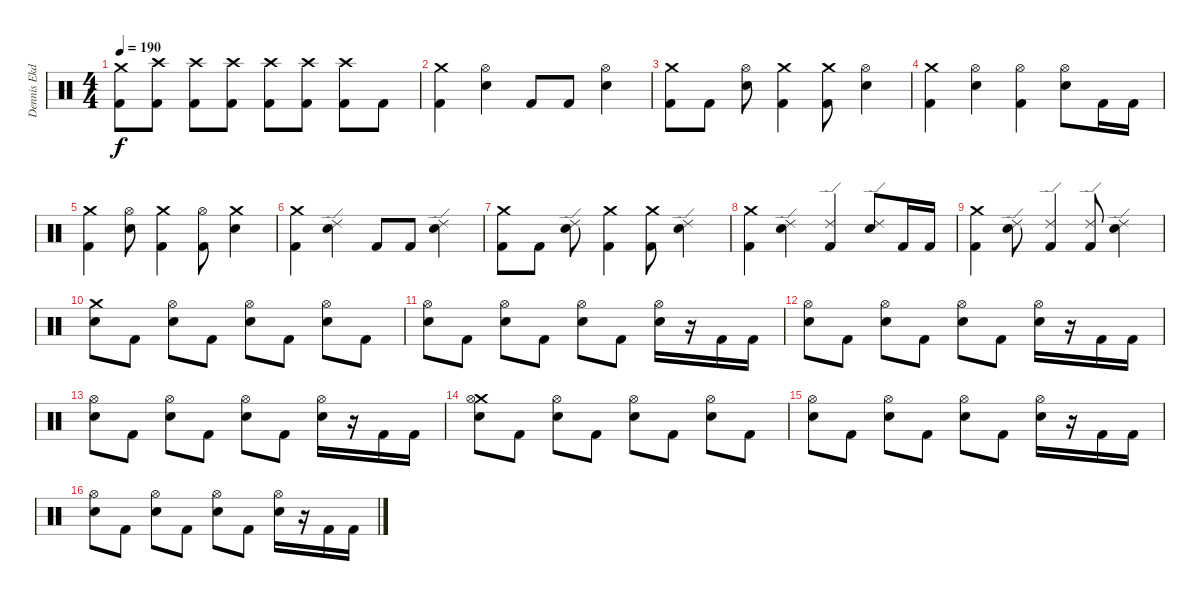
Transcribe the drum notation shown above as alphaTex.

\track ("Dennis Ekdahl" "Dennis Ekd") {instrument percussion}
\staff {score}
\articulation defaults
\ts (4 4)
\tempo 190
\clef neutral
\ks c
("Crash medium (hit)" "Kick (hit) 2").8{dy f} ("Crash high (hit)" "Kick (hit) 2").8 ("Crash high (hit)" "Kick (hit) 2").8 ("Crash high (hit)" "Kick (hit) 2").8 ("Crash high (hit)" "Kick (hit) 2").8 ("Crash high (hit)" "Kick (hit) 2").8 ("Crash high (hit)" "Kick (hit) 2").8 "Kick (hit) 2".8 |
("Crash medium (hit)" "Kick (hit) 2").4 ("Hi-Hat (open)" "Snare (hit) 2").4 "Kick (hit) 2".8 "Kick (hit) 2".8 ("Hi-Hat (open)" "Snare (hit) 2").4 |
("Crash medium (hit)" "Kick (hit) 2").8 "Kick (hit) 2".8 ("Hi-Hat (open)" "Snare (hit) 2").8 ("Crash medium (hit)" "Kick (hit) 2").4 ("Crash medium (hit)" "Kick (hit) 2").8 ("Hi-Hat (open)" "Snare (hit) 2").4 |
("Crash medium (hit)" "Kick (hit) 2").4 ("Hi-Hat (open)" "Snare (hit) 2").4 ("Hi-Hat (open)" "Kick (hit) 2").4 ("Hi-Hat (open)" "Snare (hit) 2").8 "Kick (hit) 2".16 "Kick (hit) 2".16 |
("Crash medium (hit)" "Kick (hit) 2").4 ("Hi-Hat (open)" "Snare (hit) 2").8 ("Crash medium (hit)" "Kick (hit) 2").4 ("Hi-Hat (open)" "Kick (hit) 2").8 ("Crash medium (hit)" "Snare (hit) 2").4 |
("Crash medium (hit)" "Kick (hit) 2").4 ("Ride (edge) 2" "Snare (hit) 2").4 "Kick (hit) 2".8 "Kick (hit) 2".8 ("Ride (edge) 2" "Snare (hit) 2").4 |
("Crash medium (hit)" "Kick (hit) 2").8 "Kick (hit) 2".8 ("Ride (edge) 2" "Snare (hit) 2").8 ("Crash medium (hit)" "Kick (hit) 2").4 ("Crash medium (hit)" "Kick (hit) 2").8 ("Ride (edge) 2" "Snare (hit) 2").4 |
("Crash medium (hit)" "Kick (hit) 2").4 ("Ride (edge) 2" "Snare (hit) 2").4 ("Ride (edge) 2" "Kick (hit) 2").4 ("Ride (edge) 2" "Snare (hit) 2").8 "Kick (hit) 2".16 "Kick (hit) 2".16 |
("Crash medium (hit)" "Kick (hit) 2").4 ("Ride (edge) 2" "Snare (hit) 2").8 ("Ride (edge) 2" "Kick (hit) 2").4 ("Ride (edge) 2" "Kick (hit) 2").8 ("Ride (edge) 2" "Snare (hit) 2").4 |
("Crash medium (hit)" "Snare (hit) 2").8 "Kick (hit) 2".8 ("Hi-Hat (open)" "Snare (hit) 2").8 "Kick (hit) 2".8 ("Hi-Hat (open)" "Snare (hit) 2").8 "Kick (hit) 2".8 ("Hi-Hat (open)" "Snare (hit) 2").8 "Kick (hit) 2".8 |
("Hi-Hat (open)" "Snare (hit) 2").8 "Kick (hit) 2".8 ("Hi-Hat (open)" "Snare (hit) 2").8 "Kick (hit) 2".8 ("Hi-Hat (open)" "Snare (hit) 2").8 "Kick (hit) 2".8 ("Hi-Hat (open)" "Snare (hit) 2").16 r.16 "Kick (hit) 2".16 "Kick (hit) 2".16 |
("Hi-Hat (open)" "Snare (hit) 2").8 "Kick (hit) 2".8 ("Hi-Hat (open)" "Snare (hit) 2").8 "Kick (hit) 2".8 ("Hi-Hat (open)" "Snare (hit) 2").8 "Kick (hit) 2".8 ("Hi-Hat (open)" "Snare (hit) 2").16 r.16 "Kick (hit) 2".16 "Kick (hit) 2".16 |
("Hi-Hat (open)" "Snare (hit) 2").8 "Kick (hit) 2".8 ("Hi-Hat (open)" "Snare (hit) 2").8 "Kick (hit) 2".8 ("Hi-Hat (open)" "Snare (hit) 2").8 "Kick (hit) 2".8 ("Hi-Hat (open)" "Snare (hit) 2").16 r.16 "Kick (hit) 2".16 "Kick (hit) 2".16 |
("Crash medium (hit)" "Hi-Hat (open)" "Snare (hit) 2").8 "Kick (hit) 2".8 ("Hi-Hat (open)" "Snare (hit) 2").8 "Kick (hit) 2".8 ("Hi-Hat (open)" "Snare (hit) 2").8 "Kick (hit) 2".8 ("Hi-Hat (open)" "Snare (hit) 2").8 "Kick (hit) 2".8 |
("Hi-Hat (open)" "Snare (hit) 2").8 "Kick (hit) 2".8 ("Hi-Hat (open)" "Snare (hit) 2").8 "Kick (hit) 2".8 ("Hi-Hat (open)" "Snare (hit) 2").8 "Kick (hit) 2".8 ("Hi-Hat (open)" "Snare (hit) 2").16 r.16 "Kick (hit) 2".16 "Kick (hit) 2".16 |
("Hi-Hat (open)" "Snare (hit) 2").8 "Kick (hit) 2".8 ("Hi-Hat (open)" "Snare (hit) 2").8 "Kick (hit) 2".8 ("Hi-Hat (open)" "Snare (hit) 2").8 "Kick (hit) 2".8 ("Hi-Hat (open)" "Snare (hit) 2").16 r.16 "Kick (hit) 2".16 "Kick (hit) 2".16
